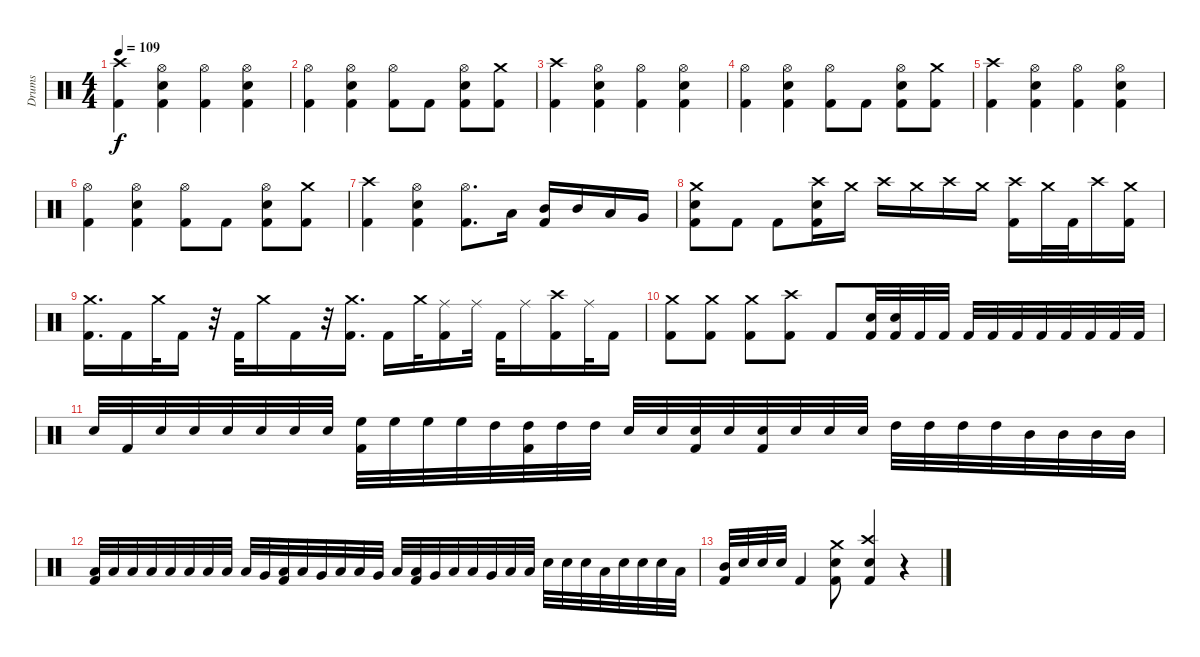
\track ("Drums" "Drums") {instrument percussion}
\staff {score}
\articulation defaults
\ts (4 4)
\tempo 109
\clef neutral
\ks c
("Kick (hit) 2" "Crash high (hit)").4{dy f} ("Snare (hit) 2" "Hi-Hat (open)" "Kick (hit) 2").4 ("Kick (hit) 2" "Hi-Hat (open)").4 ("Snare (hit) 2" "Kick (hit) 2" "Hi-Hat (open)").4 |
("Hi-Hat (open)" "Kick (hit) 2").4 ("Snare (hit) 2" "Hi-Hat (open)" "Kick (hit) 2").4 ("Hi-Hat (open)" "Kick (hit) 2").8 "Kick (hit) 2".8 ("Snare (hit) 2" "Hi-Hat (open)" "Kick (hit) 2").8 ("Kick (hit) 2" "Crash medium (hit)").8 |
("Kick (hit) 2" "Crash high (hit)").4 ("Hi-Hat (open)" "Kick (hit) 2" "Snare (hit) 2").4 ("Hi-Hat (open)" "Kick (hit) 2").4 ("Hi-Hat (open)" "Kick (hit) 2" "Snare (hit) 2").4 |
("Hi-Hat (open)" "Kick (hit) 2").4 ("Hi-Hat (open)" "Kick (hit) 2" "Snare (hit) 2").4 ("Hi-Hat (open)" "Kick (hit) 2").8 "Kick (hit) 2".8 ("Kick (hit) 2" "Hi-Hat (open)" "Snare (hit) 2").8 ("Kick (hit) 2" "Crash medium (hit)").8 |
("Kick (hit) 2" "Crash high (hit)").4 ("Hi-Hat (open)" "Kick (hit) 2" "Snare (hit) 2").4 ("Hi-Hat (open)" "Kick (hit) 2").4 ("Snare (hit) 2" "Kick (hit) 2" "Hi-Hat (open)").4 |
("Kick (hit) 2" "Hi-Hat (open)").4 ("Snare (hit) 2" "Kick (hit) 2" "Hi-Hat (open)").4 ("Kick (hit) 2" "Hi-Hat (open)").8 "Kick (hit) 2".8 ("Kick (hit) 2" "Hi-Hat (open)" "Snare (hit) 2").8 ("Crash medium (hit)" "Kick (hit) 2").8 |
("Kick (hit) 2" "Crash high (hit)").4 ("Snare (hit) 2" "Hi-Hat (open)" "Kick (hit) 2").4 ("Hi-Hat (open)" "Kick (hit) 2").8{d} "Low Tom (hit)".16 ("Kick (hit) 2" "Mid Tom (hit)").16 "Mid Tom (hit)".16 "Low Tom (hit)".16 "Very Low Tom (hit)".16 |
("Snare (hit) 2" "Crash medium (hit)" "Kick (hit) 2").8 "Kick (hit) 2".8 "Kick (hit) 2".8 ("Snare (hit) 2" "Kick (hit) 2" "Crash high (hit)").16 "Crash medium (hit)".16 "Crash high (hit)".16 "Crash medium (hit)".16 "Crash high (hit)".16 "Crash medium (hit)".16 ("Crash high (hit)" "Kick (hit) 2").16 "Crash medium (hit)".32 "Kick (hit) 2".32 "Crash high (hit)".16 ("Crash medium (hit)" "Kick (hit) 2").16 |
("Kick (hit) 2" "Crash medium (hit)").16{d} "Kick (hit) 2".16 "Crash medium (hit)".32 "Kick (hit) 2".16 r.32 "Kick (hit) 2".32 "Crash medium (hit)".16 "Kick (hit) 2".16 r.32 ("Kick (hit) 2" "Crash medium (hit)").16{d} "Kick (hit) 2".16 "Crash medium (hit)".32 ("Ride (middle)" "Kick (hit) 2").16 "Ride (middle)".32 "Kick (hit) 2".32 "Ride (middle)".16 ("Kick (hit) 2" "Crash high (hit)").16 "Ride (middle)".32 "Kick (hit) 2".16 |
("Kick (hit) 2" "Crash medium (hit)").8 ("Crash medium (hit)" "Kick (hit) 2").8 ("Kick (hit) 2" "Crash medium (hit)").8 ("Kick (hit) 2" "Crash high (hit)").8 "Kick (hit) 2".8 ("Kick (hit) 2" "Snare (hit) 2").32 ("Kick (hit) 2" "Snare (hit) 2").32 "Kick (hit) 2".32 "Kick (hit) 2".32 "Kick (hit) 2".32 "Kick (hit) 2".32 "Kick (hit) 2".32 "Kick (hit) 2".32 "Kick (hit) 2".32 "Kick (hit) 2".32 "Kick (hit) 2".32 "Kick (hit) 2".32 |
"Snare (hit) 2".32 "Kick (hit) 2".32 "Snare (hit) 2".32 "Snare (hit) 2".32 "Snare (hit) 2".32 "Snare (hit) 2".32 "Snare (hit) 2".32 "Snare (hit) 2".32 ("High Floor Tom (hit)" "Kick (hit) 2").32 "High Floor Tom (hit)".32 "High Floor Tom (hit)".32 "High Floor Tom (hit)".32 "High Tom (hit)".32 ("High Tom (hit)" "Kick (hit) 2").32 "High Tom (hit)".32 "High Tom (hit)".32 "Snare (hit) 2".32 "Snare (hit) 2".32 ("Snare (hit) 2" "Kick (hit) 2").32 "Snare (hit) 2".32 ("Snare (hit) 2" "Kick (hit) 2").32 "Snare (hit) 2".32 "Snare (hit) 2".32 "Snare (hit) 2".32 "High Tom (hit)".32 "High Tom (hit)".32 "High Tom (hit)".32 "High Tom (hit)".32 "Mid Tom (hit)".32 "Mid Tom (hit)".32 "Mid Tom (hit)".32 "Mid Tom (hit)".32 |
("Low Tom (hit)" "Kick (hit) 2").32 "Low Tom (hit)".32 "Low Tom (hit)".32 "Low Tom (hit)".32 "Low Tom (hit)".32 "Low Tom (hit)".32 "Low Tom (hit)".32 "Low Tom (hit)".32 "Low Tom (hit)".32 "Very Low Tom (hit)".32 ("Low Floor Tom (hit)" "Kick (hit) 2").32 "Low Tom (hit)".32 "Very Low Tom (hit)".32 "Low Floor Tom (hit)".32 "Low Tom (hit)".32 "Very Low Tom (hit)".32 "Low Floor Tom (hit)".32 ("Low Tom (hit)" "Kick (hit) 2").32 "Very Low Tom (hit)".32 "Low Floor Tom (hit)".32 "Low Tom (hit)".32 "Very Low Tom (hit)".32 "Low Floor Tom (hit)".32 "Low Tom (hit)".32 "Snare (hit) 2".32 "Snare (hit) 2".32 "Snare (hit) 2".32 "Low Tom (hit)".32 "Snare (hit) 2".32 "Snare (hit) 2".32 "Snare (hit) 2".32 "Low Tom (hit)".32 |
("Kick (hit) 2" "Mid Tom (hit)").32 "Snare (hit) 2".32 "Snare (hit) 2".32 "Snare (hit) 2".32 "Kick (hit) 2".4 ("Snare (hit) 2" "Kick (hit) 2" "Crash medium (hit)").8 ("Snare (hit) 2" "Crash high (hit)" "Kick (hit) 2").4 r.4
